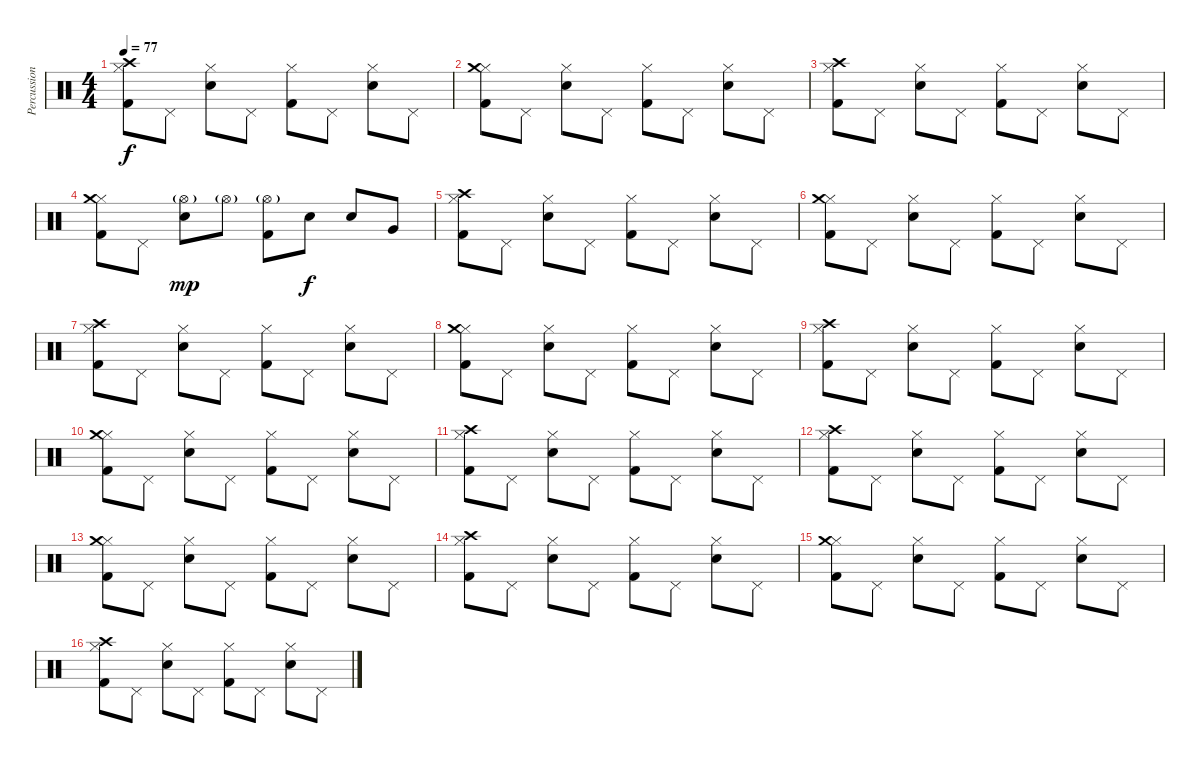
\track ("Percussions" "Percussion") {instrument percussion}
\staff {score}
\articulation defaults
\ts (4 4)
\tempo 77
\clef neutral
\ks c
("Hi-Hat (closed)" "Crash high (hit)" "Kick (hit) 2").8{dy f} "Pedal Hi-Hat (hit)".8 ("Hi-Hat (closed)" "Snare (hit) 2").8 "Pedal Hi-Hat (hit)".8 ("Hi-Hat (closed)" "Kick (hit) 2").8 "Pedal Hi-Hat (hit)".8 ("Hi-Hat (closed)" "Snare (hit) 2").8 "Pedal Hi-Hat (hit)".8 |
("Hi-Hat (closed)" "Crash medium (hit)" "Kick (hit) 2").8 "Pedal Hi-Hat (hit)".8 ("Hi-Hat (closed)" "Snare (hit) 2").8 "Pedal Hi-Hat (hit)".8 ("Hi-Hat (closed)" "Kick (hit) 2").8 "Pedal Hi-Hat (hit)".8 ("Hi-Hat (closed)" "Snare (hit) 2").8 "Pedal Hi-Hat (hit)".8 |
("Hi-Hat (closed)" "Crash high (hit)" "Kick (hit) 2").8 "Pedal Hi-Hat (hit)".8 ("Hi-Hat (closed)" "Snare (hit) 2").8 "Pedal Hi-Hat (hit)".8 ("Hi-Hat (closed)" "Kick (hit) 2").8 "Pedal Hi-Hat (hit)".8 ("Hi-Hat (closed)" "Snare (hit) 2").8 "Pedal Hi-Hat (hit)".8 |
("Hi-Hat (closed)" "Crash medium (hit)" "Kick (hit) 2").8 "Pedal Hi-Hat (hit)".8 ("Hi-Hat (open)"{g} "Snare (hit) 2").8{dy mp} "Hi-Hat (open)"{g}.8 ("Hi-Hat (open)"{g} "Kick (hit) 2").8 "Snare (hit) 2".8{dy f} "Snare (hit) 2".8 "Very Low Tom (hit)".8 |
("Hi-Hat (closed)" "Crash high (hit)" "Kick (hit) 2").8 "Pedal Hi-Hat (hit)".8 ("Hi-Hat (closed)" "Snare (hit) 2").8 "Pedal Hi-Hat (hit)".8 ("Hi-Hat (closed)" "Kick (hit) 2").8 "Pedal Hi-Hat (hit)".8 ("Hi-Hat (closed)" "Snare (hit) 2").8 "Pedal Hi-Hat (hit)".8 |
("Hi-Hat (closed)" "Crash medium (hit)" "Kick (hit) 2").8 "Pedal Hi-Hat (hit)".8 ("Hi-Hat (closed)" "Snare (hit) 2").8 "Pedal Hi-Hat (hit)".8 ("Hi-Hat (closed)" "Kick (hit) 2").8 "Pedal Hi-Hat (hit)".8 ("Hi-Hat (closed)" "Snare (hit) 2").8 "Pedal Hi-Hat (hit)".8 |
("Hi-Hat (closed)" "Crash high (hit)" "Kick (hit) 2").8 "Pedal Hi-Hat (hit)".8 ("Hi-Hat (closed)" "Snare (hit) 2").8 "Pedal Hi-Hat (hit)".8 ("Hi-Hat (closed)" "Kick (hit) 2").8 "Pedal Hi-Hat (hit)".8 ("Hi-Hat (closed)" "Snare (hit) 2").8 "Pedal Hi-Hat (hit)".8 |
("Hi-Hat (closed)" "Crash medium (hit)" "Kick (hit) 2").8 "Pedal Hi-Hat (hit)".8 ("Hi-Hat (closed)" "Snare (hit) 2").8 "Pedal Hi-Hat (hit)".8 ("Hi-Hat (closed)" "Kick (hit) 2").8 "Pedal Hi-Hat (hit)".8 ("Hi-Hat (closed)" "Snare (hit) 2").8 "Pedal Hi-Hat (hit)".8 |
("Hi-Hat (closed)" "Crash high (hit)" "Kick (hit) 2").8 "Pedal Hi-Hat (hit)".8 ("Hi-Hat (closed)" "Snare (hit) 2").8 "Pedal Hi-Hat (hit)".8 ("Hi-Hat (closed)" "Kick (hit) 2").8 "Pedal Hi-Hat (hit)".8 ("Hi-Hat (closed)" "Snare (hit) 2").8 "Pedal Hi-Hat (hit)".8 |
("Hi-Hat (closed)" "Crash medium (hit)" "Kick (hit) 2").8 "Pedal Hi-Hat (hit)".8 ("Hi-Hat (closed)" "Snare (hit) 2").8 "Pedal Hi-Hat (hit)".8 ("Hi-Hat (closed)" "Kick (hit) 2").8 "Pedal Hi-Hat (hit)".8 ("Hi-Hat (closed)" "Snare (hit) 2").8 "Pedal Hi-Hat (hit)".8 |
("Hi-Hat (closed)" "Crash high (hit)" "Kick (hit) 2").8 "Pedal Hi-Hat (hit)".8 ("Hi-Hat (closed)" "Snare (hit) 2").8 "Pedal Hi-Hat (hit)".8 ("Hi-Hat (closed)" "Kick (hit) 2").8 "Pedal Hi-Hat (hit)".8 ("Hi-Hat (closed)" "Snare (hit) 2").8 "Pedal Hi-Hat (hit)".8 |
("Hi-Hat (closed)" "Crash high (hit)" "Kick (hit) 2").8 "Pedal Hi-Hat (hit)".8 ("Hi-Hat (closed)" "Snare (hit) 2").8 "Pedal Hi-Hat (hit)".8 ("Hi-Hat (closed)" "Kick (hit) 2").8 "Pedal Hi-Hat (hit)".8 ("Hi-Hat (closed)" "Snare (hit) 2").8 "Pedal Hi-Hat (hit)".8 |
("Hi-Hat (closed)" "Crash medium (hit)" "Kick (hit) 2").8 "Pedal Hi-Hat (hit)".8 ("Hi-Hat (closed)" "Snare (hit) 2").8 "Pedal Hi-Hat (hit)".8 ("Hi-Hat (closed)" "Kick (hit) 2").8 "Pedal Hi-Hat (hit)".8 ("Hi-Hat (closed)" "Snare (hit) 2").8 "Pedal Hi-Hat (hit)".8 |
("Hi-Hat (closed)" "Crash high (hit)" "Kick (hit) 2").8 "Pedal Hi-Hat (hit)".8 ("Hi-Hat (closed)" "Snare (hit) 2").8 "Pedal Hi-Hat (hit)".8 ("Hi-Hat (closed)" "Kick (hit) 2").8 "Pedal Hi-Hat (hit)".8 ("Hi-Hat (closed)" "Snare (hit) 2").8 "Pedal Hi-Hat (hit)".8 |
("Hi-Hat (closed)" "Crash medium (hit)" "Kick (hit) 2").8 "Pedal Hi-Hat (hit)".8 ("Hi-Hat (closed)" "Snare (hit) 2").8 "Pedal Hi-Hat (hit)".8 ("Hi-Hat (closed)" "Kick (hit) 2").8 "Pedal Hi-Hat (hit)".8 ("Hi-Hat (closed)" "Snare (hit) 2").8 "Pedal Hi-Hat (hit)".8 |
("Hi-Hat (closed)" "Crash high (hit)" "Kick (hit) 2").8 "Pedal Hi-Hat (hit)".8 ("Hi-Hat (closed)" "Snare (hit) 2").8 "Pedal Hi-Hat (hit)".8 ("Hi-Hat (closed)" "Kick (hit) 2").8 "Pedal Hi-Hat (hit)".8 ("Hi-Hat (closed)" "Snare (hit) 2").8 "Pedal Hi-Hat (hit)".8
